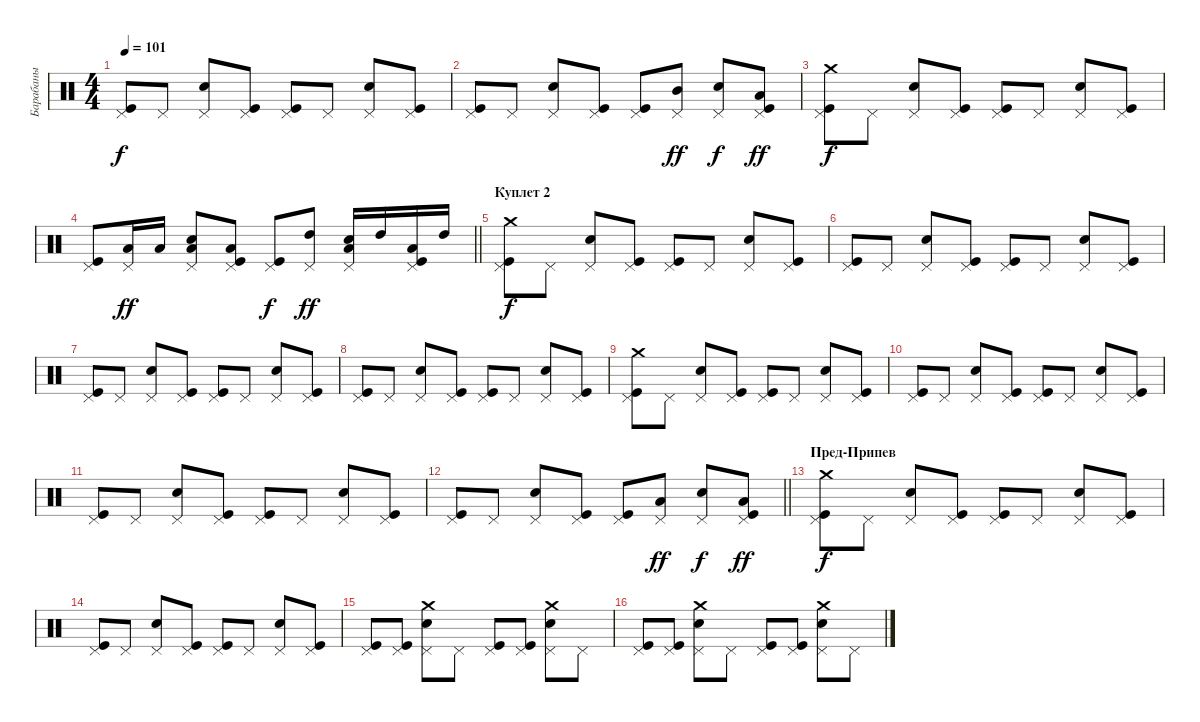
\track ("Барабаны" "Барабаны") {instrument percussion}
\staff {score}
\articulation defaults
\ts (4 4)
\tempo 101
\clef neutral
\ks c
("Kick (hit)" "Pedal Hi-Hat (hit)").8{dy f} "Pedal Hi-Hat (hit)".8 ("Snare (hit) 2" "Pedal Hi-Hat (hit)").8 ("Kick (hit)" "Pedal Hi-Hat (hit)").8 ("Kick (hit)" "Pedal Hi-Hat (hit)").8 "Pedal Hi-Hat (hit)".8 ("Snare (hit) 2" "Pedal Hi-Hat (hit)").8 ("Kick (hit)" "Pedal Hi-Hat (hit)").8 |
("Kick (hit)" "Pedal Hi-Hat (hit)").8 "Pedal Hi-Hat (hit)".8 ("Snare (hit) 2" "Pedal Hi-Hat (hit)").8 ("Kick (hit)" "Pedal Hi-Hat (hit)").8 ("Kick (hit)" "Pedal Hi-Hat (hit)").8 ("Pedal Hi-Hat (hit)" "Mid Tom (hit)").8{dy ff} ("Snare (hit) 2" "Pedal Hi-Hat (hit)").8{dy f} ("Kick (hit)" "Pedal Hi-Hat (hit)" "Low Tom (hit)").8{dy ff} |
("Kick (hit)" "Pedal Hi-Hat (hit)" "Crash medium (hit)").8{dy f} "Pedal Hi-Hat (hit)".8 ("Snare (hit) 2" "Pedal Hi-Hat (hit)").8 ("Kick (hit)" "Pedal Hi-Hat (hit)").8 ("Kick (hit)" "Pedal Hi-Hat (hit)").8 "Pedal Hi-Hat (hit)".8 ("Snare (hit) 2" "Pedal Hi-Hat (hit)").8 ("Kick (hit)" "Pedal Hi-Hat (hit)").8 |
\barLineRight lightlight
("Kick (hit)" "Pedal Hi-Hat (hit)").8 ("Pedal Hi-Hat (hit)" "Low Tom (hit)").16{dy ff} "Low Floor Tom (hit)".16 ("Snare (hit) 2" "Pedal Hi-Hat (hit)" "Low Tom (hit)").8 ("Kick (hit)" "Pedal Hi-Hat (hit)" "Low Tom (hit)").8 ("Kick (hit)" "Pedal Hi-Hat (hit)").8{dy f} ("Pedal Hi-Hat (hit)" "High Tom (hit)").8{dy ff} ("Snare (hit) 2" "Pedal Hi-Hat (hit)" "Low Tom (hit)").16 "High Tom (hit)".16 ("Kick (hit)" "Pedal Hi-Hat (hit)" "Low Tom (hit)").16 "High Tom (hit)".16 |
\section ("" "Куплет 2")
("Kick (hit)" "Pedal Hi-Hat (hit)" "Crash medium (hit)").8{dy f} "Pedal Hi-Hat (hit)".8 ("Snare (hit) 2" "Pedal Hi-Hat (hit)").8 ("Kick (hit)" "Pedal Hi-Hat (hit)").8 ("Kick (hit)" "Pedal Hi-Hat (hit)").8 "Pedal Hi-Hat (hit)".8 ("Snare (hit) 2" "Pedal Hi-Hat (hit)").8 ("Kick (hit)" "Pedal Hi-Hat (hit)").8 |
("Kick (hit)" "Pedal Hi-Hat (hit)").8 "Pedal Hi-Hat (hit)".8 ("Snare (hit) 2" "Pedal Hi-Hat (hit)").8 ("Kick (hit)" "Pedal Hi-Hat (hit)").8 ("Kick (hit)" "Pedal Hi-Hat (hit)").8 "Pedal Hi-Hat (hit)".8 ("Snare (hit) 2" "Pedal Hi-Hat (hit)").8 ("Kick (hit)" "Pedal Hi-Hat (hit)").8 |
("Kick (hit)" "Pedal Hi-Hat (hit)").8 "Pedal Hi-Hat (hit)".8 ("Snare (hit) 2" "Pedal Hi-Hat (hit)").8 ("Kick (hit)" "Pedal Hi-Hat (hit)").8 ("Kick (hit)" "Pedal Hi-Hat (hit)").8 "Pedal Hi-Hat (hit)".8 ("Snare (hit) 2" "Pedal Hi-Hat (hit)").8 ("Kick (hit)" "Pedal Hi-Hat (hit)").8 |
("Kick (hit)" "Pedal Hi-Hat (hit)").8 "Pedal Hi-Hat (hit)".8 ("Snare (hit) 2" "Pedal Hi-Hat (hit)").8 ("Kick (hit)" "Pedal Hi-Hat (hit)").8 ("Kick (hit)" "Pedal Hi-Hat (hit)").8 "Pedal Hi-Hat (hit)".8 ("Snare (hit) 2" "Pedal Hi-Hat (hit)").8 ("Kick (hit)" "Pedal Hi-Hat (hit)").8 |
("Kick (hit)" "Pedal Hi-Hat (hit)" "Crash medium (hit)").8 "Pedal Hi-Hat (hit)".8 ("Snare (hit) 2" "Pedal Hi-Hat (hit)").8 ("Kick (hit)" "Pedal Hi-Hat (hit)").8 ("Kick (hit)" "Pedal Hi-Hat (hit)").8 "Pedal Hi-Hat (hit)".8 ("Snare (hit) 2" "Pedal Hi-Hat (hit)").8 ("Kick (hit)" "Pedal Hi-Hat (hit)").8 |
("Kick (hit)" "Pedal Hi-Hat (hit)").8 "Pedal Hi-Hat (hit)".8 ("Snare (hit) 2" "Pedal Hi-Hat (hit)").8 ("Kick (hit)" "Pedal Hi-Hat (hit)").8 ("Kick (hit)" "Pedal Hi-Hat (hit)").8 "Pedal Hi-Hat (hit)".8 ("Snare (hit) 2" "Pedal Hi-Hat (hit)").8 ("Kick (hit)" "Pedal Hi-Hat (hit)").8 |
("Kick (hit)" "Pedal Hi-Hat (hit)").8 "Pedal Hi-Hat (hit)".8 ("Snare (hit) 2" "Pedal Hi-Hat (hit)").8 ("Kick (hit)" "Pedal Hi-Hat (hit)").8 ("Kick (hit)" "Pedal Hi-Hat (hit)").8 "Pedal Hi-Hat (hit)".8 ("Snare (hit) 2" "Pedal Hi-Hat (hit)").8 ("Kick (hit)" "Pedal Hi-Hat (hit)").8 |
\barLineRight lightlight
("Kick (hit)" "Pedal Hi-Hat (hit)").8 "Pedal Hi-Hat (hit)".8 ("Snare (hit) 2" "Pedal Hi-Hat (hit)").8 ("Kick (hit)" "Pedal Hi-Hat (hit)").8 ("Kick (hit)" "Pedal Hi-Hat (hit)").8 ("Pedal Hi-Hat (hit)" "Low Floor Tom (hit)").8{dy ff} ("Snare (hit) 2" "Pedal Hi-Hat (hit)").8{dy f} ("Kick (hit)" "Pedal Hi-Hat (hit)" "Low Floor Tom (hit)").8{dy ff} |
\section ("" "Пред-Припев")
("Kick (hit)" "Pedal Hi-Hat (hit)" "Crash medium (hit)").8{dy f} "Pedal Hi-Hat (hit)".8 ("Snare (hit) 2" "Pedal Hi-Hat (hit)").8 ("Kick (hit)" "Pedal Hi-Hat (hit)").8 ("Kick (hit)" "Pedal Hi-Hat (hit)").8 "Pedal Hi-Hat (hit)".8 ("Snare (hit) 2" "Pedal Hi-Hat (hit)").8 ("Kick (hit)" "Pedal Hi-Hat (hit)").8 |
("Kick (hit)" "Pedal Hi-Hat (hit)").8 "Pedal Hi-Hat (hit)".8 ("Snare (hit) 2" "Pedal Hi-Hat (hit)").8 ("Kick (hit)" "Pedal Hi-Hat (hit)").8 ("Kick (hit)" "Pedal Hi-Hat (hit)").8 "Pedal Hi-Hat (hit)".8 ("Snare (hit) 2" "Pedal Hi-Hat (hit)").8 ("Kick (hit)" "Pedal Hi-Hat (hit)").8 |
("Kick (hit)" "Pedal Hi-Hat (hit)").8 ("Kick (hit)" "Pedal Hi-Hat (hit)").8 ("Snare (hit) 2" "Pedal Hi-Hat (hit)" "Crash medium (hit)").8 "Pedal Hi-Hat (hit)".8 ("Kick (hit)" "Pedal Hi-Hat (hit)").8 ("Kick (hit)" "Pedal Hi-Hat (hit)").8 ("Snare (hit) 2" "Pedal Hi-Hat (hit)" "Crash medium (hit)").8 "Pedal Hi-Hat (hit)".8 |
("Kick (hit)" "Pedal Hi-Hat (hit)").8 ("Kick (hit)" "Pedal Hi-Hat (hit)").8 ("Snare (hit) 2" "Pedal Hi-Hat (hit)" "Crash medium (hit)").8 "Pedal Hi-Hat (hit)".8 ("Kick (hit)" "Pedal Hi-Hat (hit)").8 ("Kick (hit)" "Pedal Hi-Hat (hit)").8 ("Snare (hit) 2" "Pedal Hi-Hat (hit)" "Crash medium (hit)").8 "Pedal Hi-Hat (hit)".8
